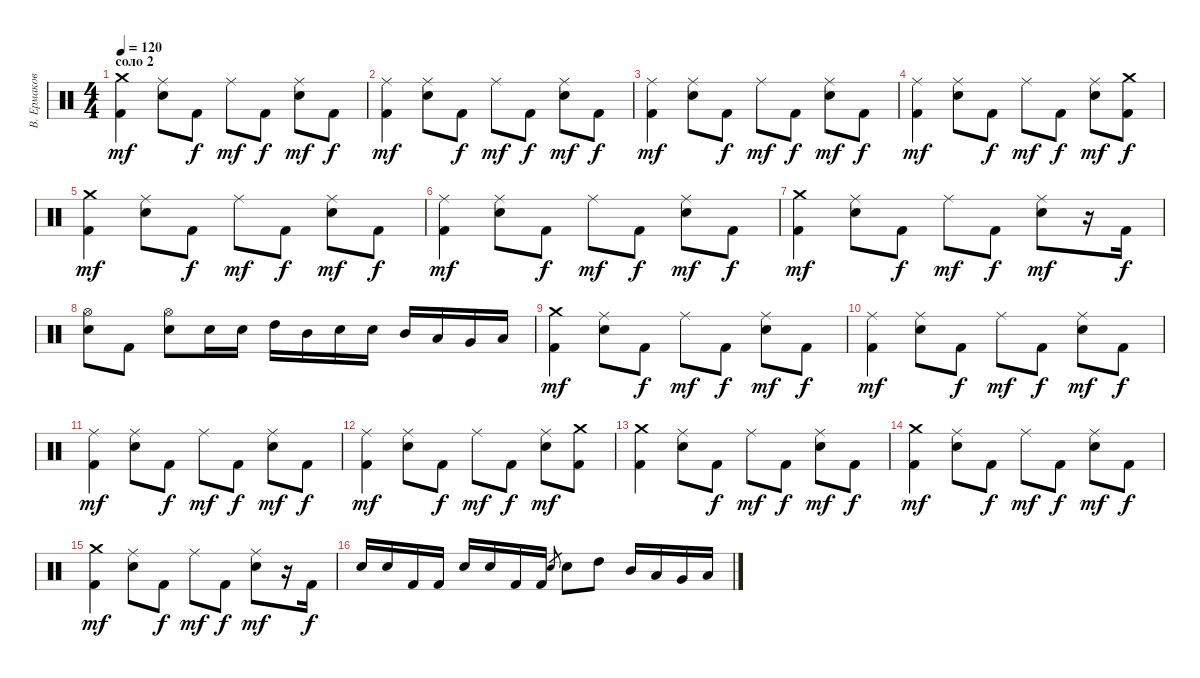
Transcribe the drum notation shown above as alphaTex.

\track ("В. Ермаков" "В. Ермаков") {instrument percussion}
\staff {score}
\articulation defaults
\ts (4 4)
\section ("" "соло 2")
\tempo 120
\clef neutral
\ks c
("Crash medium (hit)" "Kick (hit) 2").4{dy mf} ("Ride (middle)" "Electric Snare (hit)").8 "Kick (hit) 2".8{dy f} "Ride (middle)".8{dy mf} "Kick (hit) 2".8{dy f} ("Ride (middle)" "Electric Snare (hit)").8{dy mf} "Kick (hit) 2".8{dy f} |
("Ride (middle)" "Kick (hit) 2").4{dy mf} ("Ride (middle)" "Electric Snare (hit)").8 "Kick (hit) 2".8{dy f} "Ride (middle)".8{dy mf} "Kick (hit) 2".8{dy f} ("Ride (middle)" "Electric Snare (hit)").8{dy mf} "Kick (hit) 2".8{dy f} |
("Ride (middle)" "Kick (hit) 2").4{dy mf} ("Ride (middle)" "Electric Snare (hit)").8 "Kick (hit) 2".8{dy f} "Ride (middle)".8{dy mf} "Kick (hit) 2".8{dy f} ("Ride (middle)" "Electric Snare (hit)").8{dy mf} "Kick (hit) 2".8{dy f} |
("Ride (middle)" "Kick (hit) 2").4{dy mf} ("Ride (middle)" "Electric Snare (hit)").8 "Kick (hit) 2".8{dy f} "Ride (middle)".8{dy mf} "Kick (hit) 2".8{dy f} ("Ride (middle)" "Electric Snare (hit)").8{dy mf} ("Crash medium (hit)" "Kick (hit) 2").8{dy f} |
("Crash medium (hit)" "Kick (hit) 2").4{dy mf} ("Ride (middle)" "Electric Snare (hit)").8 "Kick (hit) 2".8{dy f} "Ride (middle)".8{dy mf} "Kick (hit) 2".8{dy f} ("Ride (middle)" "Electric Snare (hit)").8{dy mf} "Kick (hit) 2".8{dy f} |
("Ride (middle)" "Kick (hit) 2").4{dy mf} ("Ride (middle)" "Electric Snare (hit)").8 "Kick (hit) 2".8{dy f} "Ride (middle)".8{dy mf} "Kick (hit) 2".8{dy f} ("Ride (middle)" "Electric Snare (hit)").8{dy mf} "Kick (hit) 2".8{dy f} |
("Crash medium (hit)" "Kick (hit) 2").4{dy mf} ("Ride (middle)" "Electric Snare (hit)").8 "Kick (hit) 2".8{dy f} "Ride (middle)".8{dy mf} "Kick (hit) 2".8{dy f} ("Ride (middle)" "Electric Snare (hit)").8{dy mf} r.16 "Kick (hit) 2".16{dy f} |
("Hi-Hat (open)" "Electric Snare (hit)").8 "Kick (hit) 2".8 ("Hi-Hat (open)" "Electric Snare (hit)").8 "Electric Snare (hit)".16 "Electric Snare (hit)".16 "High Tom (hit)".16 "Mid Tom (hit)".16 "Electric Snare (hit)".16 "Electric Snare (hit)".16 "Mid Tom (hit)".16 "Low Tom (hit)".16 "Very Low Tom (hit)".16 "Low Floor Tom (hit)".16 |
("Crash medium (hit)" "Kick (hit) 2").4{dy mf} ("Ride (middle)" "Electric Snare (hit)").8 "Kick (hit) 2".8{dy f} "Ride (middle)".8{dy mf} "Kick (hit) 2".8{dy f} ("Ride (middle)" "Electric Snare (hit)").8{dy mf} "Kick (hit) 2".8{dy f} |
("Ride (middle)" "Kick (hit) 2").4{dy mf} ("Ride (middle)" "Electric Snare (hit)").8 "Kick (hit) 2".8{dy f} "Ride (middle)".8{dy mf} "Kick (hit) 2".8{dy f} ("Ride (middle)" "Electric Snare (hit)").8{dy mf} "Kick (hit) 2".8{dy f} |
("Ride (middle)" "Kick (hit) 2").4{dy mf} ("Ride (middle)" "Electric Snare (hit)").8 "Kick (hit) 2".8{dy f} "Ride (middle)".8{dy mf} "Kick (hit) 2".8{dy f} ("Ride (middle)" "Electric Snare (hit)").8{dy mf} "Kick (hit) 2".8{dy f} |
("Ride (middle)" "Kick (hit) 2").4{dy mf} ("Ride (middle)" "Electric Snare (hit)").8 "Kick (hit) 2".8{dy f} "Ride (middle)".8{dy mf} "Kick (hit) 2".8{dy f} ("Ride (middle)" "Electric Snare (hit)").8{dy mf} ("Crash medium (hit)" "Kick (hit) 2").8 |
("Crash medium (hit)" "Kick (hit) 2").4 ("Ride (middle)" "Electric Snare (hit)").8 "Kick (hit) 2".8{dy f} "Ride (middle)".8{dy mf} "Kick (hit) 2".8{dy f} ("Ride (middle)" "Electric Snare (hit)").8{dy mf} "Kick (hit) 2".8{dy f} |
("Crash medium (hit)" "Kick (hit) 2").4{dy mf} ("Ride (middle)" "Electric Snare (hit)").8 "Kick (hit) 2".8{dy f} "Ride (middle)".8{dy mf} "Kick (hit) 2".8{dy f} ("Ride (middle)" "Electric Snare (hit)").8{dy mf} "Kick (hit) 2".8{dy f} |
("Crash medium (hit)" "Kick (hit) 2").4{dy mf} ("Ride (middle)" "Electric Snare (hit)").8 "Kick (hit) 2".8{dy f} "Ride (middle)".8{dy mf} "Kick (hit) 2".8{dy f} ("Ride (middle)" "Electric Snare (hit)").8{dy mf} r.16 "Kick (hit) 2".16{dy f} |
"Electric Snare (hit)".16 "Electric Snare (hit)".16 "Kick (hit) 2".16 "Kick (hit) 2".16 "Electric Snare (hit)".16 "Electric Snare (hit)".16 "Kick (hit) 2".16 "Kick (hit) 2".16 "Electric Snare (hit)".8{gr} "Electric Snare (hit)".8 "High Tom (hit)".8 "Mid Tom (hit)".16 "Low Tom (hit)".16 "Very Low Tom (hit)".16 "Low Floor Tom (hit)".16
